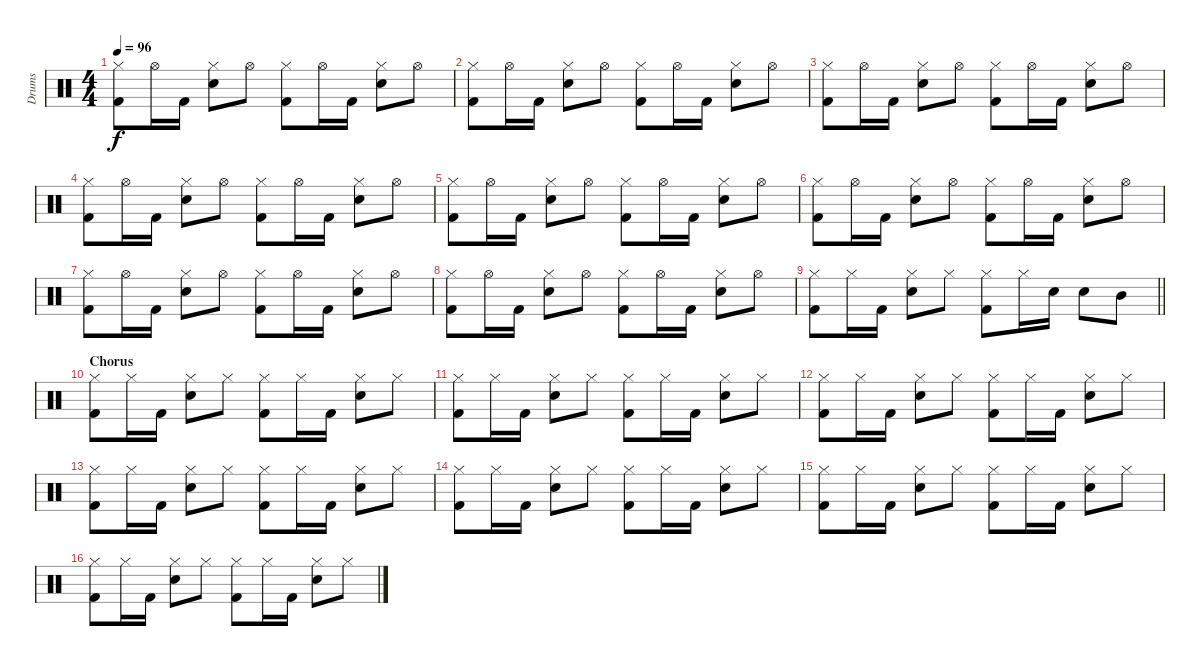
\track ("Drums" "Drums") {instrument percussion}
\staff {score}
\articulation defaults
\ts (4 4)
\tempo 96
\clef neutral
\ks c
("Hi-Hat (closed)" "Kick (hit) 2").8{dy f} "Hi-Hat (open)".16 "Kick (hit) 2".16 ("Hi-Hat (closed)" "Electric Snare (hit)").8 "Hi-Hat (open)".8 ("Hi-Hat (closed)" "Kick (hit) 2").8 "Hi-Hat (open)".16 "Kick (hit) 2".16 ("Hi-Hat (closed)" "Electric Snare (hit)").8 "Hi-Hat (open)".8 |
("Hi-Hat (closed)" "Kick (hit) 2").8 "Hi-Hat (open)".16 "Kick (hit) 2".16 ("Hi-Hat (closed)" "Electric Snare (hit)").8 "Hi-Hat (open)".8 ("Hi-Hat (closed)" "Kick (hit) 2").8 "Hi-Hat (open)".16 "Kick (hit) 2".16 ("Hi-Hat (closed)" "Electric Snare (hit)").8 "Hi-Hat (open)".8 |
("Hi-Hat (closed)" "Kick (hit) 2").8 "Hi-Hat (open)".16 "Kick (hit) 2".16 ("Hi-Hat (closed)" "Electric Snare (hit)").8 "Hi-Hat (open)".8 ("Hi-Hat (closed)" "Kick (hit) 2").8 "Hi-Hat (open)".16 "Kick (hit) 2".16 ("Hi-Hat (closed)" "Electric Snare (hit)").8 "Hi-Hat (open)".8 |
("Hi-Hat (closed)" "Kick (hit) 2").8 "Hi-Hat (open)".16 "Kick (hit) 2".16 ("Hi-Hat (closed)" "Electric Snare (hit)").8 "Hi-Hat (open)".8 ("Hi-Hat (closed)" "Kick (hit) 2").8 "Hi-Hat (open)".16 "Kick (hit) 2".16 ("Hi-Hat (closed)" "Electric Snare (hit)").8 "Hi-Hat (open)".8 |
("Hi-Hat (closed)" "Kick (hit) 2").8 "Hi-Hat (open)".16 "Kick (hit) 2".16 ("Hi-Hat (closed)" "Electric Snare (hit)").8 "Hi-Hat (open)".8 ("Hi-Hat (closed)" "Kick (hit) 2").8 "Hi-Hat (open)".16 "Kick (hit) 2".16 ("Hi-Hat (closed)" "Electric Snare (hit)").8 "Hi-Hat (open)".8 |
("Hi-Hat (closed)" "Kick (hit) 2").8 "Hi-Hat (open)".16 "Kick (hit) 2".16 ("Hi-Hat (closed)" "Electric Snare (hit)").8 "Hi-Hat (open)".8 ("Hi-Hat (closed)" "Kick (hit) 2").8 "Hi-Hat (open)".16 "Kick (hit) 2".16 ("Hi-Hat (closed)" "Electric Snare (hit)").8 "Hi-Hat (open)".8 |
("Hi-Hat (closed)" "Kick (hit) 2").8 "Hi-Hat (open)".16 "Kick (hit) 2".16 ("Hi-Hat (closed)" "Electric Snare (hit)").8 "Hi-Hat (open)".8 ("Hi-Hat (closed)" "Kick (hit) 2").8 "Hi-Hat (open)".16 "Kick (hit) 2".16 ("Hi-Hat (closed)" "Electric Snare (hit)").8 "Hi-Hat (open)".8 |
("Hi-Hat (closed)" "Kick (hit) 2").8 "Hi-Hat (open)".16 "Kick (hit) 2".16 ("Hi-Hat (closed)" "Electric Snare (hit)").8 "Hi-Hat (open)".8 ("Hi-Hat (closed)" "Kick (hit) 2").8 "Hi-Hat (open)".16 "Kick (hit) 2".16 ("Hi-Hat (closed)" "Electric Snare (hit)").8 "Hi-Hat (open)".8 |
\barLineRight lightlight
("Hi-Hat (closed)" "Kick (hit) 2").8 "Hi-Hat (closed)".16 "Kick (hit) 2".16 ("Hi-Hat (closed)" "Electric Snare (hit)").8 "Hi-Hat (closed)".8 ("Hi-Hat (closed)" "Kick (hit) 2").8 "Hi-Hat (closed)".16 "Electric Snare (hit)".16 "Electric Snare (hit)".8 "Mid Tom (hit)".8 |
\section ("" "Chorus")
("Hi-Hat (closed)" "Kick (hit) 2").8 "Hi-Hat (closed)".16 "Kick (hit) 2".16 ("Hi-Hat (closed)" "Electric Snare (hit)").8 "Hi-Hat (closed)".8 ("Hi-Hat (closed)" "Kick (hit) 2").8 "Hi-Hat (closed)".16 "Kick (hit) 2".16 ("Hi-Hat (closed)" "Electric Snare (hit)").8 "Hi-Hat (closed)".8 |
("Hi-Hat (closed)" "Kick (hit) 2").8 "Hi-Hat (closed)".16 "Kick (hit) 2".16 ("Hi-Hat (closed)" "Electric Snare (hit)").8 "Hi-Hat (closed)".8 ("Hi-Hat (closed)" "Kick (hit) 2").8 "Hi-Hat (closed)".16 "Kick (hit) 2".16 ("Hi-Hat (closed)" "Electric Snare (hit)").8 "Hi-Hat (closed)".8 |
("Hi-Hat (closed)" "Kick (hit) 2").8 "Hi-Hat (closed)".16 "Kick (hit) 2".16 ("Hi-Hat (closed)" "Electric Snare (hit)").8 "Hi-Hat (closed)".8 ("Hi-Hat (closed)" "Kick (hit) 2").8 "Hi-Hat (closed)".16 "Kick (hit) 2".16 ("Hi-Hat (closed)" "Electric Snare (hit)").8 "Hi-Hat (closed)".8 |
("Hi-Hat (closed)" "Kick (hit) 2").8 "Hi-Hat (closed)".16 "Kick (hit) 2".16 ("Hi-Hat (closed)" "Electric Snare (hit)").8 "Hi-Hat (closed)".8 ("Hi-Hat (closed)" "Kick (hit) 2").8 "Hi-Hat (closed)".16 "Kick (hit) 2".16 ("Hi-Hat (closed)" "Electric Snare (hit)").8 "Hi-Hat (closed)".8 |
("Hi-Hat (closed)" "Kick (hit) 2").8 "Hi-Hat (closed)".16 "Kick (hit) 2".16 ("Hi-Hat (closed)" "Electric Snare (hit)").8 "Hi-Hat (closed)".8 ("Hi-Hat (closed)" "Kick (hit) 2").8 "Hi-Hat (closed)".16 "Kick (hit) 2".16 ("Hi-Hat (closed)" "Electric Snare (hit)").8 "Hi-Hat (closed)".8 |
("Hi-Hat (closed)" "Kick (hit) 2").8 "Hi-Hat (closed)".16 "Kick (hit) 2".16 ("Hi-Hat (closed)" "Electric Snare (hit)").8 "Hi-Hat (closed)".8 ("Hi-Hat (closed)" "Kick (hit) 2").8 "Hi-Hat (closed)".16 "Kick (hit) 2".16 ("Hi-Hat (closed)" "Electric Snare (hit)").8 "Hi-Hat (closed)".8 |
("Hi-Hat (closed)" "Kick (hit) 2").8 "Hi-Hat (closed)".16 "Kick (hit) 2".16 ("Hi-Hat (closed)" "Electric Snare (hit)").8 "Hi-Hat (closed)".8 ("Hi-Hat (closed)" "Kick (hit) 2").8 "Hi-Hat (closed)".16 "Kick (hit) 2".16 ("Hi-Hat (closed)" "Electric Snare (hit)").8 "Hi-Hat (closed)".8
